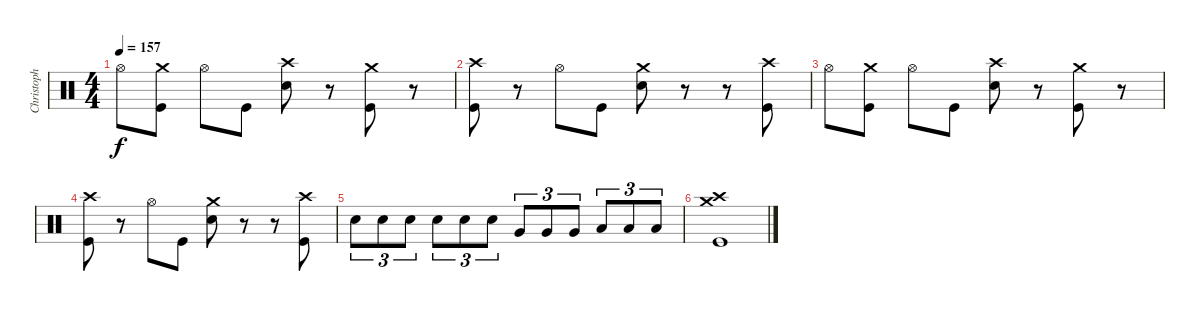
\track ("Christoph" "Christoph") {instrument percussion}
\staff {score}
\articulation defaults
\ts (4 4)
\tempo 157
\clef neutral
\ks c "Hi-Hat (open)".8{dy f}
("Crash medium (hit)" "Kick (hit)").8 "Hi-Hat (open)".8 "Kick (hit)".8 ("Crash high (hit)" "Snare (hit) 2").8 r.8 ("Crash medium (hit)" "Kick (hit)").8 r.8 |
("Crash high (hit)" "Kick (hit)").8 r.8 "Hi-Hat (open)".8 "Kick (hit)".8 ("Crash medium (hit)" "Snare (hit) 2").8 r.8 r.8 ("Crash high (hit)" "Kick (hit)").8 |
"Hi-Hat (open)".8 ("Crash medium (hit)" "Kick (hit)").8 "Hi-Hat (open)".8 "Kick (hit)".8 ("Crash high (hit)" "Snare (hit) 2").8 r.8 ("Crash medium (hit)" "Kick (hit)").8 r.8 |
("Crash high (hit)" "Kick (hit)").8 r.8 "Hi-Hat (open)".8 "Kick (hit)".8 ("Crash medium (hit)" "Snare (hit) 2").8 r.8 r.8 ("Crash high (hit)" "Kick (hit)").8 |
"Snare (hit) 2".8{tu (3 2)} "Snare (hit) 2".8{tu (3 2)} "Snare (hit) 2".8{tu (3 2)} "Snare (hit) 2".8{tu (3 2)} "Snare (hit) 2".8{tu (3 2)} "Snare (hit) 2".8{tu (3 2)} "Very Low Tom (hit)".8{tu (3 2)} "Very Low Tom (hit)".8{tu (3 2)} "Very Low Tom (hit)".8{tu (3 2)} "Low Tom (hit)".8{tu (3 2)} "Low Tom (hit)".8{tu (3 2)} "Low Tom (hit)".8{tu (3 2)} |
("Crash high (hit)" "Kick (hit)" "Crash medium (hit)").1
